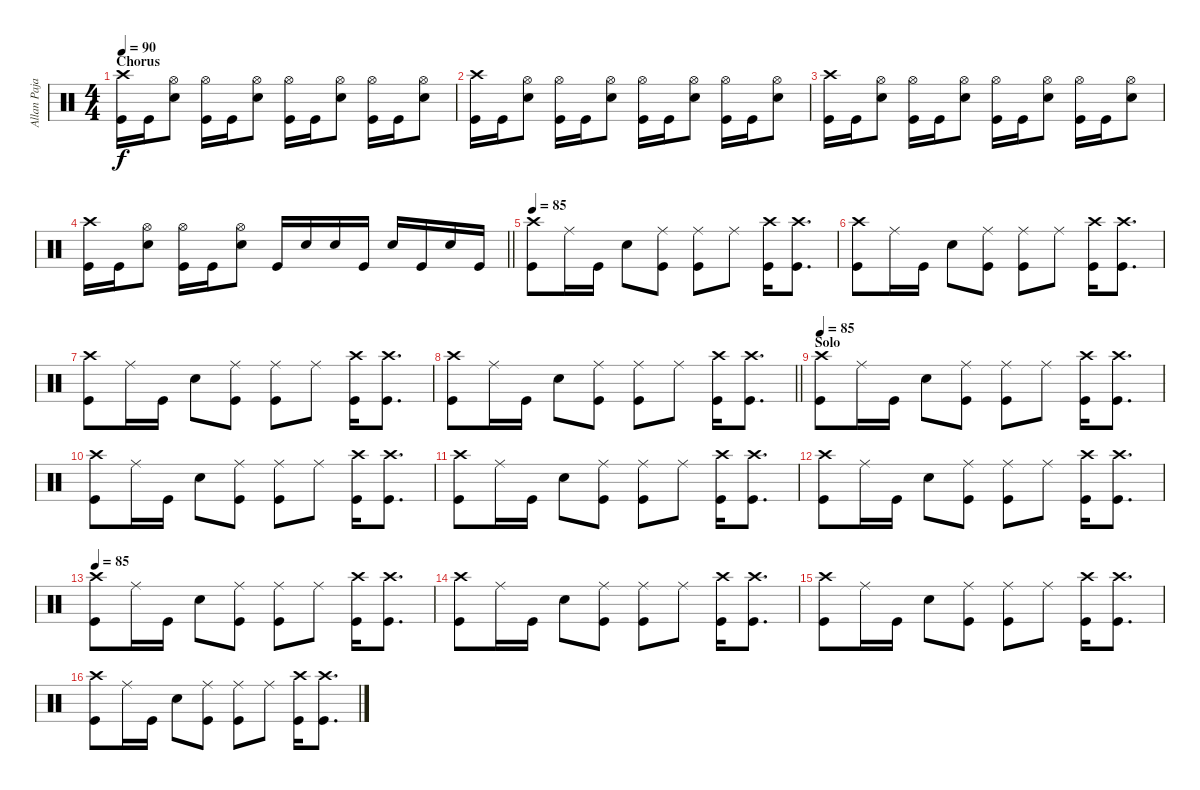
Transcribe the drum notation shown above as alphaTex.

\track ("Allan Pajarin (Drums)" "Allan Paja") {instrument percussion}
\staff {score}
\articulation defaults
\ts (4 4)
\section ("" "Chorus")
\tempo 90
\clef neutral
\ks c
("Kick (hit)" "Crash high (hit)").16{dy f} "Kick (hit)".16 ("Hi-Hat (open)" "Electric Snare (hit)").8 ("Kick (hit)" "Hi-Hat (open)").16 "Kick (hit)".16 ("Hi-Hat (open)" "Electric Snare (hit)").8 ("Kick (hit)" "Hi-Hat (open)").16 "Kick (hit)".16 ("Hi-Hat (open)" "Electric Snare (hit)").8 ("Kick (hit)" "Hi-Hat (open)").16 "Kick (hit)".16 ("Hi-Hat (open)" "Electric Snare (hit)").8 |
("Kick (hit)" "Crash high (hit)").16 "Kick (hit)".16 ("Hi-Hat (open)" "Electric Snare (hit)").8 ("Kick (hit)" "Hi-Hat (open)").16 "Kick (hit)".16 ("Hi-Hat (open)" "Electric Snare (hit)").8 ("Kick (hit)" "Hi-Hat (open)").16 "Kick (hit)".16 ("Hi-Hat (open)" "Electric Snare (hit)").8 ("Kick (hit)" "Hi-Hat (open)").16 "Kick (hit)".16 ("Hi-Hat (open)" "Electric Snare (hit)").8 |
("Kick (hit)" "Crash high (hit)").16 "Kick (hit)".16 ("Hi-Hat (open)" "Electric Snare (hit)").8 ("Kick (hit)" "Hi-Hat (open)").16 "Kick (hit)".16 ("Hi-Hat (open)" "Electric Snare (hit)").8 ("Kick (hit)" "Hi-Hat (open)").16 "Kick (hit)".16 ("Hi-Hat (open)" "Electric Snare (hit)").8 ("Kick (hit)" "Hi-Hat (open)").16 "Kick (hit)".16 ("Hi-Hat (open)" "Electric Snare (hit)").8 |
\barLineRight lightlight
("Kick (hit)" "Crash high (hit)").16 "Kick (hit)".16 ("Hi-Hat (open)" "Electric Snare (hit)").8 ("Kick (hit)" "Hi-Hat (open)").16 "Kick (hit)".16 ("Hi-Hat (open)" "Electric Snare (hit)").8 "Kick (hit)".16 "Electric Snare (hit)".16 "Electric Snare (hit)".16 "Kick (hit)".16 "Electric Snare (hit)".16 "Kick (hit)".16 "Electric Snare (hit)".16 "Kick (hit)".16 |
\tempo 85
("Kick (hit)" "Crash high (hit)").8 "Ride (middle)".16 "Kick (hit)".16 "Electric Snare (hit)".8 ("Ride (middle)" "Kick (hit)").8 ("Kick (hit)" "Ride (middle)").8 "Ride (middle)".8 ("Crash high (hit)" "Kick (hit)").16 ("Crash high (hit)" "Kick (hit)").8{d} |
("Kick (hit)" "Crash high (hit)").8 "Ride (middle)".16 "Kick (hit)".16 "Electric Snare (hit)".8 ("Ride (middle)" "Kick (hit)").8 ("Kick (hit)" "Ride (middle)").8 "Ride (middle)".8 ("Crash high (hit)" "Kick (hit)").16 ("Crash high (hit)" "Kick (hit)").8{d} |
("Kick (hit)" "Crash high (hit)").8 "Ride (middle)".16 "Kick (hit)".16 "Electric Snare (hit)".8 ("Ride (middle)" "Kick (hit)").8 ("Kick (hit)" "Ride (middle)").8 "Ride (middle)".8 ("Crash high (hit)" "Kick (hit)").16 ("Crash high (hit)" "Kick (hit)").8{d} |
\barLineRight lightlight
("Kick (hit)" "Crash high (hit)").8 "Ride (middle)".16 "Kick (hit)".16 "Electric Snare (hit)".8 ("Ride (middle)" "Kick (hit)").8 ("Kick (hit)" "Ride (middle)").8 "Ride (middle)".8 ("Crash high (hit)" "Kick (hit)").16 ("Crash high (hit)" "Kick (hit)").8{d} |
\section ("" "Solo")
\tempo 85
("Kick (hit)" "Crash high (hit)").8 "Ride (middle)".16 "Kick (hit)".16 "Electric Snare (hit)".8 ("Ride (middle)" "Kick (hit)").8 ("Kick (hit)" "Ride (middle)").8 "Ride (middle)".8 ("Crash high (hit)" "Kick (hit)").16 ("Crash high (hit)" "Kick (hit)").8{d} |
("Kick (hit)" "Crash high (hit)").8 "Ride (middle)".16 "Kick (hit)".16 "Electric Snare (hit)".8 ("Ride (middle)" "Kick (hit)").8 ("Kick (hit)" "Ride (middle)").8 "Ride (middle)".8 ("Crash high (hit)" "Kick (hit)").16 ("Crash high (hit)" "Kick (hit)").8{d} |
("Kick (hit)" "Crash high (hit)").8 "Ride (middle)".16 "Kick (hit)".16 "Electric Snare (hit)".8 ("Ride (middle)" "Kick (hit)").8 ("Kick (hit)" "Ride (middle)").8 "Ride (middle)".8 ("Crash high (hit)" "Kick (hit)").16 ("Crash high (hit)" "Kick (hit)").8{d} |
("Kick (hit)" "Crash high (hit)").8 "Ride (middle)".16 "Kick (hit)".16 "Electric Snare (hit)".8 ("Ride (middle)" "Kick (hit)").8 ("Kick (hit)" "Ride (middle)").8 "Ride (middle)".8 ("Crash high (hit)" "Kick (hit)").16 ("Crash high (hit)" "Kick (hit)").8{d} |
\tempo 85
("Kick (hit)" "Crash high (hit)").8 "Ride (middle)".16 "Kick (hit)".16 "Electric Snare (hit)".8 ("Ride (middle)" "Kick (hit)").8 ("Kick (hit)" "Ride (middle)").8 "Ride (middle)".8 ("Crash high (hit)" "Kick (hit)").16 ("Crash high (hit)" "Kick (hit)").8{d} |
("Kick (hit)" "Crash high (hit)").8 "Ride (middle)".16 "Kick (hit)".16 "Electric Snare (hit)".8 ("Ride (middle)" "Kick (hit)").8 ("Kick (hit)" "Ride (middle)").8 "Ride (middle)".8 ("Crash high (hit)" "Kick (hit)").16 ("Crash high (hit)" "Kick (hit)").8{d} |
("Kick (hit)" "Crash high (hit)").8 "Ride (middle)".16 "Kick (hit)".16 "Electric Snare (hit)".8 ("Ride (middle)" "Kick (hit)").8 ("Kick (hit)" "Ride (middle)").8 "Ride (middle)".8 ("Crash high (hit)" "Kick (hit)").16 ("Crash high (hit)" "Kick (hit)").8{d} |
("Kick (hit)" "Crash high (hit)").8 "Ride (middle)".16 "Kick (hit)".16 "Electric Snare (hit)".8 ("Ride (middle)" "Kick (hit)").8 ("Kick (hit)" "Ride (middle)").8 "Ride (middle)".8 ("Crash high (hit)" "Kick (hit)").16 ("Crash high (hit)" "Kick (hit)").8{d}
